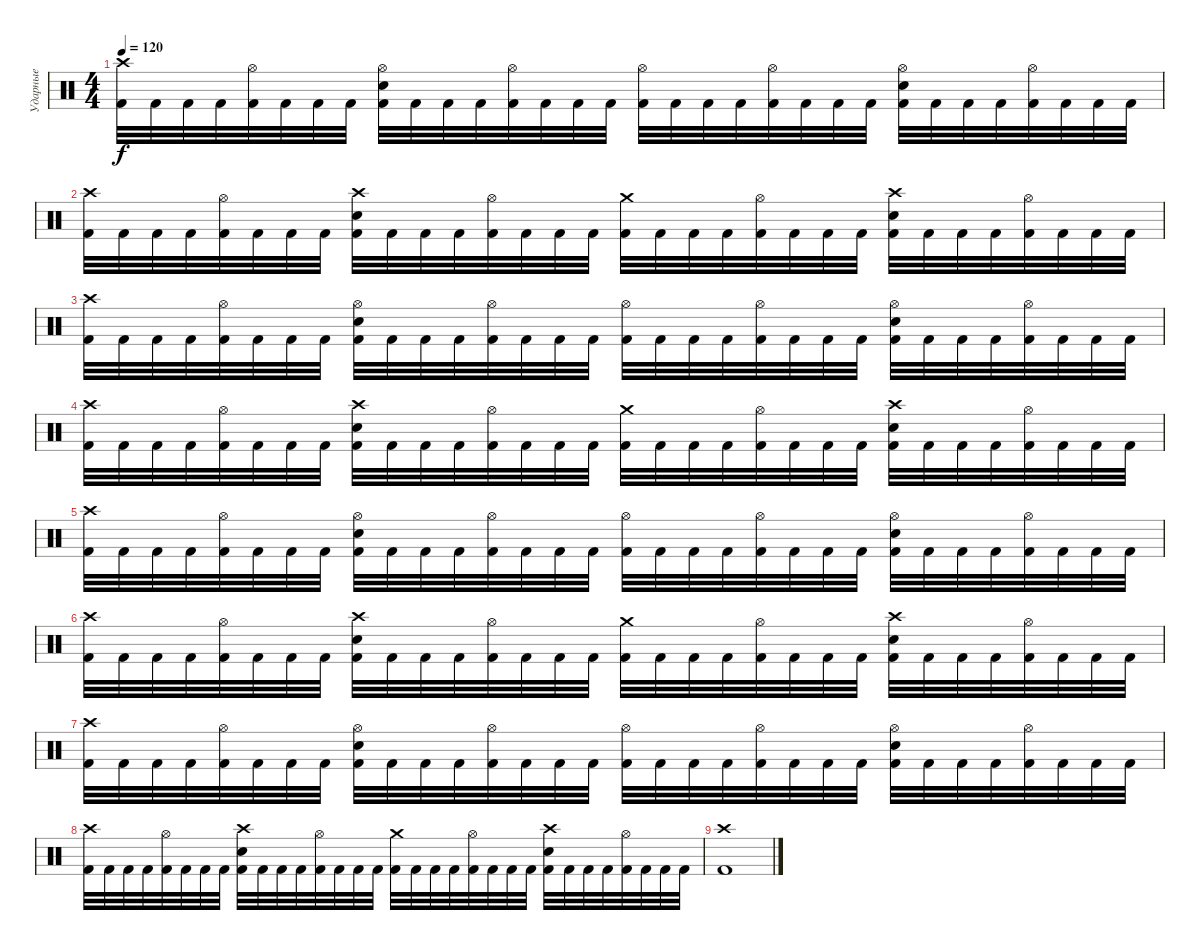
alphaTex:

\track ("Ударные" "Ударные") {instrument percussion}
\staff {score}
\articulation defaults
\ts (4 4)
\tempo 120
\clef neutral
\ks c
("Crash high (hit)" "Kick (hit) 2").32{dy f} "Kick (hit) 2".32 "Kick (hit) 2".32 "Kick (hit) 2".32 ("Hi-Hat (open)" "Kick (hit) 2").32 "Kick (hit) 2".32 "Kick (hit) 2".32 "Kick (hit) 2".32 ("Hi-Hat (open)" "Snare (hit) 2" "Kick (hit) 2").32 "Kick (hit) 2".32 "Kick (hit) 2".32 "Kick (hit) 2".32 ("Hi-Hat (open)" "Kick (hit) 2").32 "Kick (hit) 2".32 "Kick (hit) 2".32 "Kick (hit) 2".32 ("Hi-Hat (open)" "Kick (hit) 2").32 "Kick (hit) 2".32 "Kick (hit) 2".32 "Kick (hit) 2".32 ("Hi-Hat (open)" "Kick (hit) 2").32 "Kick (hit) 2".32 "Kick (hit) 2".32 "Kick (hit) 2".32 ("Hi-Hat (open)" "Snare (hit) 2" "Kick (hit) 2").32 "Kick (hit) 2".32 "Kick (hit) 2".32 "Kick (hit) 2".32 ("Hi-Hat (open)" "Kick (hit) 2").32 "Kick (hit) 2".32 "Kick (hit) 2".32 "Kick (hit) 2".32 |
("Crash high (hit)" "Kick (hit) 2").32 "Kick (hit) 2".32 "Kick (hit) 2".32 "Kick (hit) 2".32 ("Hi-Hat (open)" "Kick (hit) 2").32 "Kick (hit) 2".32 "Kick (hit) 2".32 "Kick (hit) 2".32 ("Crash high (hit)" "Snare (hit) 2" "Kick (hit) 2").32 "Kick (hit) 2".32 "Kick (hit) 2".32 "Kick (hit) 2".32 ("Hi-Hat (open)" "Kick (hit) 2").32 "Kick (hit) 2".32 "Kick (hit) 2".32 "Kick (hit) 2".32 ("Crash medium (hit)" "Kick (hit) 2").32 "Kick (hit) 2".32 "Kick (hit) 2".32 "Kick (hit) 2".32 ("Hi-Hat (open)" "Kick (hit) 2").32 "Kick (hit) 2".32 "Kick (hit) 2".32 "Kick (hit) 2".32 ("Crash high (hit)" "Snare (hit) 2" "Kick (hit) 2").32 "Kick (hit) 2".32 "Kick (hit) 2".32 "Kick (hit) 2".32 ("Hi-Hat (open)" "Kick (hit) 2").32 "Kick (hit) 2".32 "Kick (hit) 2".32 "Kick (hit) 2".32 |
("Crash high (hit)" "Kick (hit) 2").32 "Kick (hit) 2".32 "Kick (hit) 2".32 "Kick (hit) 2".32 ("Hi-Hat (open)" "Kick (hit) 2").32 "Kick (hit) 2".32 "Kick (hit) 2".32 "Kick (hit) 2".32 ("Hi-Hat (open)" "Snare (hit) 2" "Kick (hit) 2").32 "Kick (hit) 2".32 "Kick (hit) 2".32 "Kick (hit) 2".32 ("Hi-Hat (open)" "Kick (hit) 2").32 "Kick (hit) 2".32 "Kick (hit) 2".32 "Kick (hit) 2".32 ("Hi-Hat (open)" "Kick (hit) 2").32 "Kick (hit) 2".32 "Kick (hit) 2".32 "Kick (hit) 2".32 ("Hi-Hat (open)" "Kick (hit) 2").32 "Kick (hit) 2".32 "Kick (hit) 2".32 "Kick (hit) 2".32 ("Hi-Hat (open)" "Snare (hit) 2" "Kick (hit) 2").32 "Kick (hit) 2".32 "Kick (hit) 2".32 "Kick (hit) 2".32 ("Hi-Hat (open)" "Kick (hit) 2").32 "Kick (hit) 2".32 "Kick (hit) 2".32 "Kick (hit) 2".32 |
("Crash high (hit)" "Kick (hit) 2").32 "Kick (hit) 2".32 "Kick (hit) 2".32 "Kick (hit) 2".32 ("Hi-Hat (open)" "Kick (hit) 2").32 "Kick (hit) 2".32 "Kick (hit) 2".32 "Kick (hit) 2".32 ("Crash high (hit)" "Snare (hit) 2" "Kick (hit) 2").32 "Kick (hit) 2".32 "Kick (hit) 2".32 "Kick (hit) 2".32 ("Hi-Hat (open)" "Kick (hit) 2").32 "Kick (hit) 2".32 "Kick (hit) 2".32 "Kick (hit) 2".32 ("Crash medium (hit)" "Kick (hit) 2").32 "Kick (hit) 2".32 "Kick (hit) 2".32 "Kick (hit) 2".32 ("Hi-Hat (open)" "Kick (hit) 2").32 "Kick (hit) 2".32 "Kick (hit) 2".32 "Kick (hit) 2".32 ("Crash high (hit)" "Snare (hit) 2" "Kick (hit) 2").32 "Kick (hit) 2".32 "Kick (hit) 2".32 "Kick (hit) 2".32 ("Hi-Hat (open)" "Kick (hit) 2").32 "Kick (hit) 2".32 "Kick (hit) 2".32 "Kick (hit) 2".32 |
("Crash high (hit)" "Kick (hit) 2").32 "Kick (hit) 2".32 "Kick (hit) 2".32 "Kick (hit) 2".32 ("Hi-Hat (open)" "Kick (hit) 2").32 "Kick (hit) 2".32 "Kick (hit) 2".32 "Kick (hit) 2".32 ("Hi-Hat (open)" "Snare (hit) 2" "Kick (hit) 2").32 "Kick (hit) 2".32 "Kick (hit) 2".32 "Kick (hit) 2".32 ("Hi-Hat (open)" "Kick (hit) 2").32 "Kick (hit) 2".32 "Kick (hit) 2".32 "Kick (hit) 2".32 ("Hi-Hat (open)" "Kick (hit) 2").32 "Kick (hit) 2".32 "Kick (hit) 2".32 "Kick (hit) 2".32 ("Hi-Hat (open)" "Kick (hit) 2").32 "Kick (hit) 2".32 "Kick (hit) 2".32 "Kick (hit) 2".32 ("Hi-Hat (open)" "Snare (hit) 2" "Kick (hit) 2").32 "Kick (hit) 2".32 "Kick (hit) 2".32 "Kick (hit) 2".32 ("Hi-Hat (open)" "Kick (hit) 2").32 "Kick (hit) 2".32 "Kick (hit) 2".32 "Kick (hit) 2".32 |
("Crash high (hit)" "Kick (hit) 2").32 "Kick (hit) 2".32 "Kick (hit) 2".32 "Kick (hit) 2".32 ("Hi-Hat (open)" "Kick (hit) 2").32 "Kick (hit) 2".32 "Kick (hit) 2".32 "Kick (hit) 2".32 ("Crash high (hit)" "Snare (hit) 2" "Kick (hit) 2").32 "Kick (hit) 2".32 "Kick (hit) 2".32 "Kick (hit) 2".32 ("Hi-Hat (open)" "Kick (hit) 2").32 "Kick (hit) 2".32 "Kick (hit) 2".32 "Kick (hit) 2".32 ("Crash medium (hit)" "Kick (hit) 2").32 "Kick (hit) 2".32 "Kick (hit) 2".32 "Kick (hit) 2".32 ("Hi-Hat (open)" "Kick (hit) 2").32 "Kick (hit) 2".32 "Kick (hit) 2".32 "Kick (hit) 2".32 ("Crash high (hit)" "Snare (hit) 2" "Kick (hit) 2").32 "Kick (hit) 2".32 "Kick (hit) 2".32 "Kick (hit) 2".32 ("Hi-Hat (open)" "Kick (hit) 2").32 "Kick (hit) 2".32 "Kick (hit) 2".32 "Kick (hit) 2".32 |
("Crash high (hit)" "Kick (hit) 2").32 "Kick (hit) 2".32 "Kick (hit) 2".32 "Kick (hit) 2".32 ("Hi-Hat (open)" "Kick (hit) 2").32 "Kick (hit) 2".32 "Kick (hit) 2".32 "Kick (hit) 2".32 ("Hi-Hat (open)" "Snare (hit) 2" "Kick (hit) 2").32 "Kick (hit) 2".32 "Kick (hit) 2".32 "Kick (hit) 2".32 ("Hi-Hat (open)" "Kick (hit) 2").32 "Kick (hit) 2".32 "Kick (hit) 2".32 "Kick (hit) 2".32 ("Hi-Hat (open)" "Kick (hit) 2").32 "Kick (hit) 2".32 "Kick (hit) 2".32 "Kick (hit) 2".32 ("Hi-Hat (open)" "Kick (hit) 2").32 "Kick (hit) 2".32 "Kick (hit) 2".32 "Kick (hit) 2".32 ("Hi-Hat (open)" "Snare (hit) 2" "Kick (hit) 2").32 "Kick (hit) 2".32 "Kick (hit) 2".32 "Kick (hit) 2".32 ("Hi-Hat (open)" "Kick (hit) 2").32 "Kick (hit) 2".32 "Kick (hit) 2".32 "Kick (hit) 2".32 |
("Crash high (hit)" "Kick (hit) 2").32 "Kick (hit) 2".32 "Kick (hit) 2".32 "Kick (hit) 2".32 ("Hi-Hat (open)" "Kick (hit) 2").32 "Kick (hit) 2".32 "Kick (hit) 2".32 "Kick (hit) 2".32 ("Crash high (hit)" "Snare (hit) 2" "Kick (hit) 2").32 "Kick (hit) 2".32 "Kick (hit) 2".32 "Kick (hit) 2".32 ("Hi-Hat (open)" "Kick (hit) 2").32 "Kick (hit) 2".32 "Kick (hit) 2".32 "Kick (hit) 2".32 ("Crash medium (hit)" "Kick (hit) 2").32 "Kick (hit) 2".32 "Kick (hit) 2".32 "Kick (hit) 2".32 ("Hi-Hat (open)" "Kick (hit) 2").32 "Kick (hit) 2".32 "Kick (hit) 2".32 "Kick (hit) 2".32 ("Crash high (hit)" "Snare (hit) 2" "Kick (hit) 2").32 "Kick (hit) 2".32 "Kick (hit) 2".32 "Kick (hit) 2".32 ("Hi-Hat (open)" "Kick (hit) 2").32 "Kick (hit) 2".32 "Kick (hit) 2".32 "Kick (hit) 2".32 |
("Kick (hit) 2" "Crash high (hit)").1
